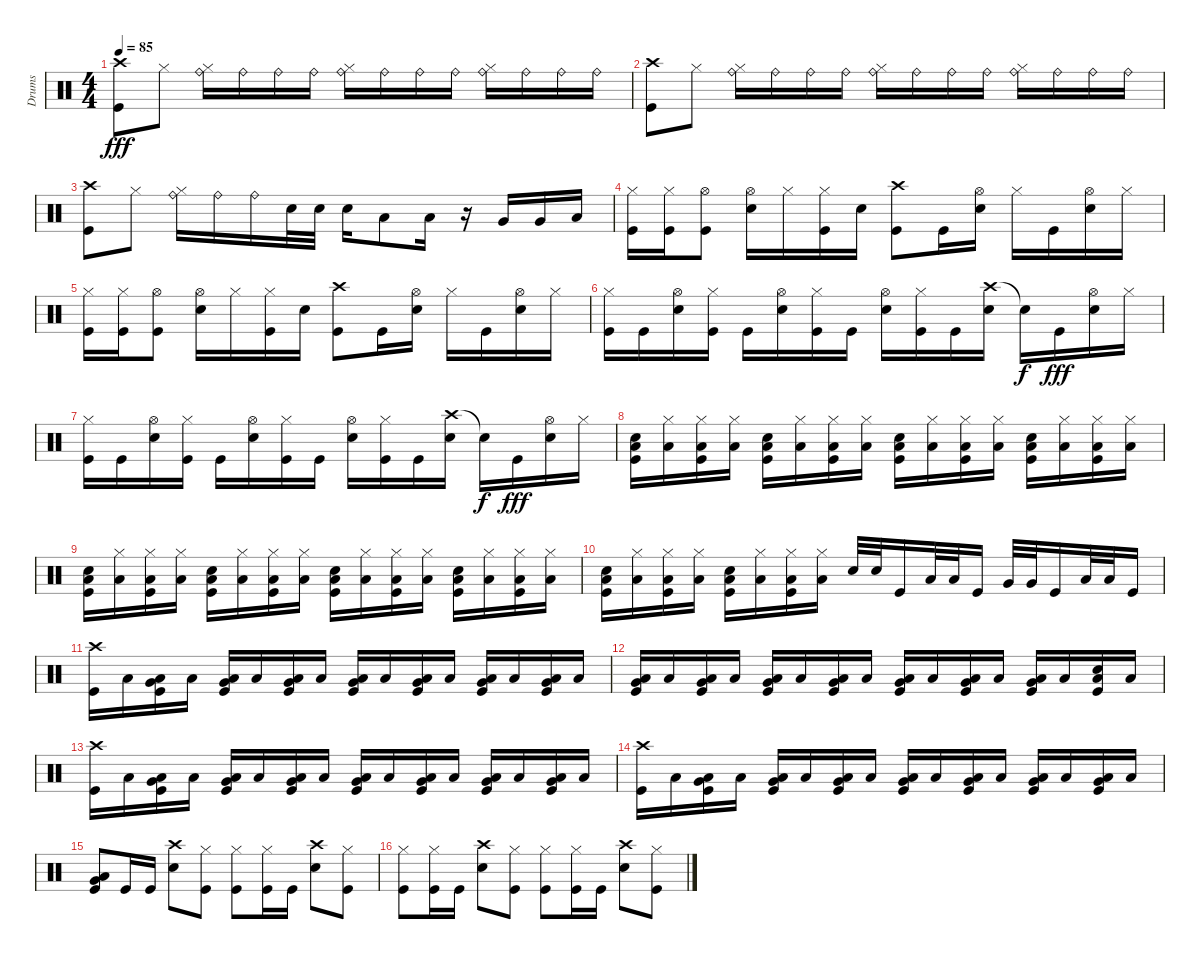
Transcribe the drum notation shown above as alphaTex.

\track ("Drums" "Drums") {instrument percussion}
\staff {score}
\articulation defaults
\ts (4 4)
\tempo 85
\clef neutral
\ks c
("Crash high (hit)" "Kick (hit)").8{dy fff} "Hi-Hat (closed)".8 ("Hi-Hat (closed)" "Ride (bell)").16 "Ride (bell)".16 "Ride (bell)".16 "Ride (bell)".16 ("Hi-Hat (closed)" "Ride (bell)").16 "Ride (bell)".16 "Ride (bell)".16 "Ride (bell)".16 ("Hi-Hat (closed)" "Ride (bell)").16 "Ride (bell)".16 "Ride (bell)".16 "Ride (bell)".16 |
("Crash high (hit)" "Kick (hit)").8 "Hi-Hat (closed)".8 ("Hi-Hat (closed)" "Ride (bell)").16 "Ride (bell)".16 "Ride (bell)".16 "Ride (bell)".16 ("Hi-Hat (closed)" "Ride (bell)").16 "Ride (bell)".16 "Ride (bell)".16 "Ride (bell)".16 ("Hi-Hat (closed)" "Ride (bell)").16 "Ride (bell)".16 "Ride (bell)".16 "Ride (bell)".16 |
("Crash high (hit)" "Kick (hit)").8 "Hi-Hat (closed)".8 ("Hi-Hat (closed)" "Ride (bell)").16 "Ride (bell)".16 "Ride (bell)".16 "Snare (hit) 2".32 "Snare (hit) 2".32 "Snare (hit) 2".16 "Low Tom (hit)".8 "Low Tom (hit)".16 r.16 "Very Low Tom (hit)".16 "Very Low Tom (hit)".16 "Low Tom (hit)".16 |
("Hi-Hat (closed)" "Kick (hit)").16 ("Hi-Hat (closed)" "Kick (hit)").16 ("Hi-Hat (open)" "Kick (hit)").8 ("Hi-Hat (open)" "Snare (hit) 2").16 "Hi-Hat (closed)".16 ("Hi-Hat (closed)" "Kick (hit)").16 "Snare (hit) 2".16 ("Crash high (hit)" "Kick (hit)").8 "Kick (hit)".16 ("Hi-Hat (open)" "Snare (hit) 2").16 "Hi-Hat (closed)".16 "Kick (hit)".16 ("Hi-Hat (open)" "Snare (hit) 2").16 "Hi-Hat (closed)".16 |
("Hi-Hat (closed)" "Kick (hit)").16 ("Hi-Hat (closed)" "Kick (hit)").16 ("Hi-Hat (open)" "Kick (hit)").8 ("Hi-Hat (open)" "Snare (hit) 2").16 "Hi-Hat (closed)".16 ("Hi-Hat (closed)" "Kick (hit)").16 "Snare (hit) 2".16 ("Crash high (hit)" "Kick (hit)").8 "Kick (hit)".16 ("Hi-Hat (open)" "Snare (hit) 2").16 "Hi-Hat (closed)".16 "Kick (hit)".16 ("Hi-Hat (open)" "Snare (hit) 2").16 "Hi-Hat (closed)".16 |
("Hi-Hat (closed)" "Kick (hit)").16 "Kick (hit)".16 ("Hi-Hat (open)" "Snare (hit) 2").16 ("Hi-Hat (closed)" "Kick (hit)").16 "Kick (hit)".16 ("Hi-Hat (open)" "Snare (hit) 2").16 ("Hi-Hat (closed)" "Kick (hit)").16 "Kick (hit)".16 ("Hi-Hat (open)" "Snare (hit) 2").16 ("Hi-Hat (closed)" "Kick (hit)").16 "Kick (hit)".16 ("Crash high (hit)" "Snare (hit) 2").16 "Snare (hit)"{t}.16{dy f} "Kick (hit)".16{dy fff} ("Hi-Hat (open)" "Snare (hit) 2").16 "Hi-Hat (closed)".16 |
("Hi-Hat (closed)" "Kick (hit)").16 "Kick (hit)".16 ("Hi-Hat (open)" "Snare (hit) 2").16 ("Hi-Hat (closed)" "Kick (hit)").16 "Kick (hit)".16 ("Hi-Hat (open)" "Snare (hit) 2").16 ("Hi-Hat (closed)" "Kick (hit)").16 "Kick (hit)".16 ("Hi-Hat (open)" "Snare (hit) 2").16 ("Hi-Hat (closed)" "Kick (hit)").16 "Kick (hit)".16 ("Crash high (hit)" "Snare (hit) 2").16 "Snare (hit)"{t}.16{dy f} "Kick (hit)".16{dy fff} ("Hi-Hat (open)" "Snare (hit) 2").16 "Hi-Hat (closed)".16 |
("Low Floor Tom (hit)" "Snare (hit) 2" "Kick (hit)").16 ("Hi-Hat (closed)" "Low Floor Tom (hit)").16 ("Hi-Hat (closed)" "Low Floor Tom (hit)" "Kick (hit)").16 ("Hi-Hat (closed)" "Low Floor Tom (hit)").16 ("Low Floor Tom (hit)" "Snare (hit) 2" "Kick (hit)").16 ("Hi-Hat (closed)" "Low Floor Tom (hit)").16 ("Hi-Hat (closed)" "Low Floor Tom (hit)" "Kick (hit)").16 ("Hi-Hat (closed)" "Low Floor Tom (hit)").16 ("Low Floor Tom (hit)" "Snare (hit) 2" "Kick (hit)").16 ("Hi-Hat (closed)" "Low Floor Tom (hit)").16 ("Hi-Hat (closed)" "Low Floor Tom (hit)" "Kick (hit)").16 ("Hi-Hat (closed)" "Low Floor Tom (hit)").16 ("Low Floor Tom (hit)" "Snare (hit) 2" "Kick (hit)").16 ("Hi-Hat (closed)" "Low Floor Tom (hit)").16 ("Hi-Hat (closed)" "Low Floor Tom (hit)" "Kick (hit)").16 ("Hi-Hat (closed)" "Low Floor Tom (hit)").16 |
("Low Floor Tom (hit)" "Snare (hit) 2" "Kick (hit)").16 ("Hi-Hat (closed)" "Low Floor Tom (hit)").16 ("Hi-Hat (closed)" "Low Floor Tom (hit)" "Kick (hit)").16 ("Hi-Hat (closed)" "Low Floor Tom (hit)").16 ("Low Floor Tom (hit)" "Snare (hit) 2" "Kick (hit)").16 ("Hi-Hat (closed)" "Low Floor Tom (hit)").16 ("Hi-Hat (closed)" "Low Floor Tom (hit)" "Kick (hit)").16 ("Hi-Hat (closed)" "Low Floor Tom (hit)").16 ("Low Floor Tom (hit)" "Snare (hit) 2" "Kick (hit)").16 ("Hi-Hat (closed)" "Low Floor Tom (hit)").16 ("Hi-Hat (closed)" "Low Floor Tom (hit)" "Kick (hit)").16 ("Hi-Hat (closed)" "Low Floor Tom (hit)").16 ("Low Floor Tom (hit)" "Snare (hit) 2" "Kick (hit)").16 ("Hi-Hat (closed)" "Low Floor Tom (hit)").16 ("Hi-Hat (closed)" "Low Floor Tom (hit)" "Kick (hit)").16 ("Hi-Hat (closed)" "Low Floor Tom (hit)").16 |
("Low Floor Tom (hit)" "Snare (hit) 2" "Kick (hit)").16 ("Hi-Hat (closed)" "Low Floor Tom (hit)").16 ("Hi-Hat (closed)" "Low Floor Tom (hit)" "Kick (hit)").16 ("Hi-Hat (closed)" "Low Floor Tom (hit)").16 ("Low Floor Tom (hit)" "Snare (hit) 2" "Kick (hit)").16 ("Hi-Hat (closed)" "Low Floor Tom (hit)").16 ("Hi-Hat (closed)" "Low Floor Tom (hit)" "Kick (hit)").16 ("Hi-Hat (closed)" "Low Floor Tom (hit)").16 "Snare (hit) 2".32 "Snare (hit) 2".32 "Kick (hit)".16 "Low Tom (hit)".32 "Low Tom (hit)".32 "Kick (hit)".16 "Very Low Tom (hit)".32 "Very Low Tom (hit)".32 "Kick (hit)".16 "Low Floor Tom (hit)".32 "Low Floor Tom (hit)".32 "Kick (hit)".16 |
("Crash high (hit)" "Kick (hit)").16 "Low Floor Tom (hit)".16 ("Very Low Tom (hit)" "Low Floor Tom (hit)" "Kick (hit)").16 "Low Floor Tom (hit)".16 ("Very Low Tom (hit)" "Low Floor Tom (hit)" "Kick (hit)").16 "Low Floor Tom (hit)".16 ("Very Low Tom (hit)" "Low Floor Tom (hit)" "Kick (hit)").16 "Low Floor Tom (hit)".16 ("Very Low Tom (hit)" "Low Floor Tom (hit)" "Kick (hit)").16 "Low Floor Tom (hit)".16 ("Very Low Tom (hit)" "Low Floor Tom (hit)" "Kick (hit)").16 "Low Floor Tom (hit)".16 ("Very Low Tom (hit)" "Low Floor Tom (hit)" "Kick (hit)").16 "Low Floor Tom (hit)".16 ("Very Low Tom (hit)" "Low Floor Tom (hit)" "Kick (hit)").16 "Low Floor Tom (hit)".16 |
("Very Low Tom (hit)" "Low Floor Tom (hit)" "Kick (hit)").16 "Low Floor Tom (hit)".16 ("Very Low Tom (hit)" "Low Floor Tom (hit)" "Kick (hit)").16 "Low Floor Tom (hit)".16 ("Very Low Tom (hit)" "Low Floor Tom (hit)" "Kick (hit)").16 "Low Floor Tom (hit)".16 ("Very Low Tom (hit)" "Low Floor Tom (hit)" "Kick (hit)").16 "Low Floor Tom (hit)".16 ("Very Low Tom (hit)" "Low Floor Tom (hit)" "Kick (hit)").16 "Low Floor Tom (hit)".16 ("Very Low Tom (hit)" "Low Floor Tom (hit)" "Kick (hit)").16 "Low Floor Tom (hit)".16 ("Very Low Tom (hit)" "Low Floor Tom (hit)" "Kick (hit)").16 "Low Floor Tom (hit)".16 ("Low Floor Tom (hit)" "Snare (hit) 2" "Kick (hit)").16 "Low Floor Tom (hit)".16 |
("Crash high (hit)" "Kick (hit)").16 "Low Floor Tom (hit)".16 ("Very Low Tom (hit)" "Low Floor Tom (hit)" "Kick (hit)").16 "Low Floor Tom (hit)".16 ("Very Low Tom (hit)" "Low Floor Tom (hit)" "Kick (hit)").16 "Low Floor Tom (hit)".16 ("Very Low Tom (hit)" "Low Floor Tom (hit)" "Kick (hit)").16 "Low Floor Tom (hit)".16 ("Very Low Tom (hit)" "Low Floor Tom (hit)" "Kick (hit)").16 "Low Floor Tom (hit)".16 ("Very Low Tom (hit)" "Low Floor Tom (hit)" "Kick (hit)").16 "Low Floor Tom (hit)".16 ("Very Low Tom (hit)" "Low Floor Tom (hit)" "Kick (hit)").16 "Low Floor Tom (hit)".16 ("Very Low Tom (hit)" "Low Floor Tom (hit)" "Kick (hit)").16 "Low Floor Tom (hit)".16 |
("Crash high (hit)" "Kick (hit)").16 "Low Floor Tom (hit)".16 ("Very Low Tom (hit)" "Low Floor Tom (hit)" "Kick (hit)").16 "Low Floor Tom (hit)".16 ("Very Low Tom (hit)" "Low Floor Tom (hit)" "Kick (hit)").16 "Low Floor Tom (hit)".16 ("Very Low Tom (hit)" "Low Floor Tom (hit)" "Kick (hit)").16 "Low Floor Tom (hit)".16 ("Very Low Tom (hit)" "Low Floor Tom (hit)" "Kick (hit)").16 "Low Floor Tom (hit)".16 ("Very Low Tom (hit)" "Low Floor Tom (hit)" "Kick (hit)").16 "Low Floor Tom (hit)".16 ("Very Low Tom (hit)" "Low Floor Tom (hit)" "Kick (hit)").16 "Low Floor Tom (hit)".16 ("Very Low Tom (hit)" "Low Floor Tom (hit)" "Kick (hit)").16 "Low Floor Tom (hit)".16 |
("Very Low Tom (hit)" "Low Floor Tom (hit)" "Kick (hit)").8 "Kick (hit)".16 "Kick (hit)".16 ("Crash high (hit)" "Snare (hit) 2").8 ("Hi-Hat (closed)" "Kick (hit)").8 ("Hi-Hat (closed)" "Kick (hit)").8 ("Hi-Hat (closed)" "Kick (hit)").16 "Kick (hit)".16 ("Crash high (hit)" "Snare (hit) 2").8 ("Hi-Hat (closed)" "Kick (hit)").8 |
("Hi-Hat (closed)" "Kick (hit)").8 ("Hi-Hat (closed)" "Kick (hit)").16 "Kick (hit)".16 ("Crash high (hit)" "Snare (hit) 2").8 ("Hi-Hat (closed)" "Kick (hit)").8 ("Hi-Hat (closed)" "Kick (hit)").8 ("Hi-Hat (closed)" "Kick (hit)").16 "Kick (hit)".16 ("Crash high (hit)" "Snare (hit) 2").8 ("Hi-Hat (closed)" "Kick (hit)").8
